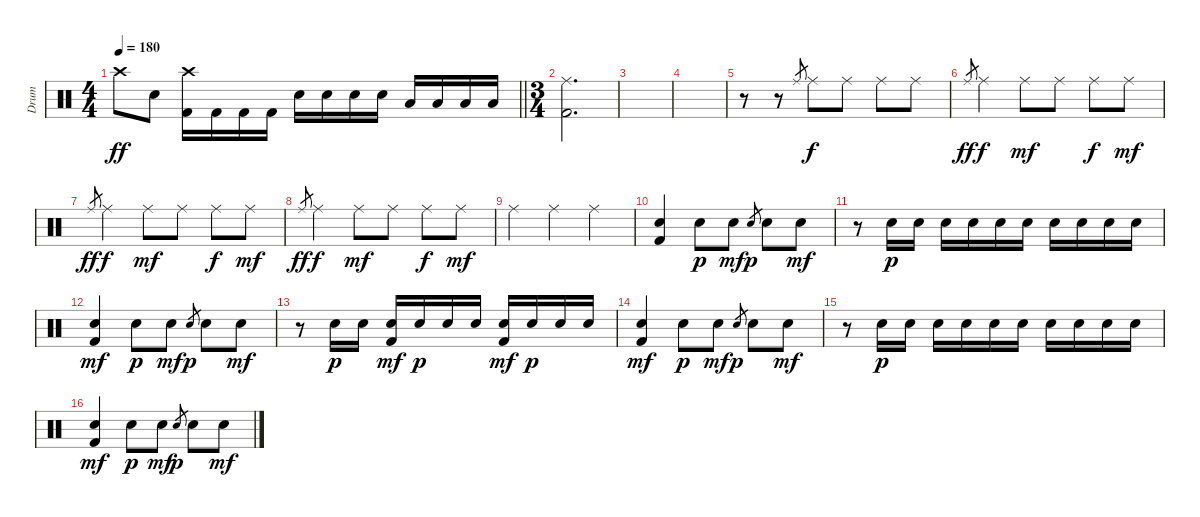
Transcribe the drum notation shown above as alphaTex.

\track ("Drum" "Drum") {instrument percussion}
\staff {score}
\articulation defaults
\ts (4 4)
\tempo 180
\clef neutral
\barLineRight lightlight
\ks c "Crash high (hit)".8{dy ff} "Snare (hit) 2".8
("Crash high (hit)" "Kick (hit) 2").16 "Kick (hit) 2".16 "Kick (hit) 2".16 "Kick (hit) 2".16 "Snare (hit) 2".16 "Snare (hit) 2".16 "Snare (hit) 2".16 "Snare (hit) 2".16 "Low Tom (hit)".16 "Low Tom (hit)".16 "Low Tom (hit)".16 "Low Tom (hit)".16 |
\ts (3 4)
("Ride (middle)" "Kick (hit) 2").2{d} |
|
|
r.8 r.8 "Ride (middle)".8{gr} "Ride (middle)".8{dy f} "Ride (middle)".8 "Ride (middle)".8 "Ride (middle)".8 |
"Ride (middle)".8{gr dy ff} "Ride (middle)".4{dy f} "Ride (middle)".8{dy mf} "Ride (middle)".8 "Ride (middle)".8{dy f} "Ride (middle)".8{dy mf} |
"Ride (middle)".8{gr dy ff} "Ride (middle)".4{dy f} "Ride (middle)".8{dy mf} "Ride (middle)".8 "Ride (middle)".8{dy f} "Ride (middle)".8{dy mf} |
"Ride (middle)".8{gr dy ff} "Ride (middle)".4{dy f} "Ride (middle)".8{dy mf} "Ride (middle)".8 "Ride (middle)".8{dy f} "Ride (middle)".8{dy mf} |
"Ride (middle)".4 "Ride (middle)".4 "Ride (middle)".4 |
("Snare (hit) 2" "Kick (hit) 2").4 "Snare (hit) 2".8{dy p} "Snare (hit) 2".8{dy mf} "Snare (hit) 2".8{gr dy p} "Snare (hit) 2".8 "Snare (hit) 2".8{dy mf} |
r.8 "Snare (hit) 2".16{dy p} "Snare (hit) 2".16 "Snare (hit) 2".16 "Snare (hit) 2".16 "Snare (hit) 2".16 "Snare (hit) 2".16 "Snare (hit) 2".16 "Snare (hit) 2".16 "Snare (hit) 2".16 "Snare (hit) 2".16 |
("Snare (hit) 2" "Kick (hit) 2").4{dy mf} "Snare (hit) 2".8{dy p} "Snare (hit) 2".8{dy mf} "Snare (hit) 2".8{gr dy p} "Snare (hit) 2".8 "Snare (hit) 2".8{dy mf} |
r.8 "Snare (hit) 2".16{dy p} "Snare (hit) 2".16 ("Snare (hit) 2" "Kick (hit) 2").16{dy mf} "Snare (hit) 2".16{dy p} "Snare (hit) 2".16 "Snare (hit) 2".16 ("Snare (hit) 2" "Kick (hit) 2").16{dy mf} "Snare (hit) 2".16{dy p} "Snare (hit) 2".16 "Snare (hit) 2".16 |
("Snare (hit) 2" "Kick (hit) 2").4{dy mf} "Snare (hit) 2".8{dy p} "Snare (hit) 2".8{dy mf} "Snare (hit) 2".8{gr dy p} "Snare (hit) 2".8 "Snare (hit) 2".8{dy mf} |
r.8 "Snare (hit) 2".16{dy p} "Snare (hit) 2".16 "Snare (hit) 2".16 "Snare (hit) 2".16 "Snare (hit) 2".16 "Snare (hit) 2".16 "Snare (hit) 2".16 "Snare (hit) 2".16 "Snare (hit) 2".16 "Snare (hit) 2".16 |
("Snare (hit) 2" "Kick (hit) 2").4{dy mf} "Snare (hit) 2".8{dy p} "Snare (hit) 2".8{dy mf} "Snare (hit) 2".8{gr dy p} "Snare (hit) 2".8 "Snare (hit) 2".8{dy mf}
